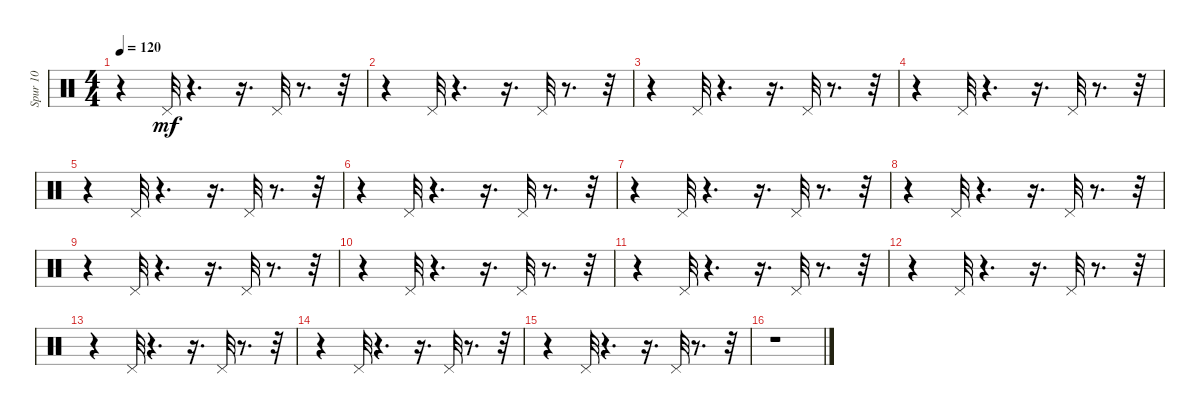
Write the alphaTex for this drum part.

\track ("Spur 10" "Spur 10") {instrument percussion}
\staff {score}
\articulation defaults
\ts (4 4)
\tempo 120
\clef neutral
\ks c
r.4{dy mf} "Pedal Hi-Hat (hit)".32 r.4{d} r.16{d} "Pedal Hi-Hat (hit)".32 r.8{d} r.32 |
r.4 "Pedal Hi-Hat (hit)".32 r.4{d} r.16{d} "Pedal Hi-Hat (hit)".32 r.8{d} r.32 |
r.4 "Pedal Hi-Hat (hit)".32 r.4{d} r.16{d} "Pedal Hi-Hat (hit)".32 r.8{d} r.32 |
r.4 "Pedal Hi-Hat (hit)".32 r.4{d} r.16{d} "Pedal Hi-Hat (hit)".32 r.8{d} r.32 |
r.4 "Pedal Hi-Hat (hit)".32 r.4{d} r.16{d} "Pedal Hi-Hat (hit)".32 r.8{d} r.32 |
r.4 "Pedal Hi-Hat (hit)".32 r.4{d} r.16{d} "Pedal Hi-Hat (hit)".32 r.8{d} r.32 |
r.4 "Pedal Hi-Hat (hit)".32 r.4{d} r.16{d} "Pedal Hi-Hat (hit)".32 r.8{d} r.32 |
r.4 "Pedal Hi-Hat (hit)".32 r.4{d} r.16{d} "Pedal Hi-Hat (hit)".32 r.8{d} r.32 |
r.4 "Pedal Hi-Hat (hit)".32 r.4{d} r.16{d} "Pedal Hi-Hat (hit)".32 r.8{d} r.32 |
r.4 "Pedal Hi-Hat (hit)".32 r.4{d} r.16{d} "Pedal Hi-Hat (hit)".32 r.8{d} r.32 |
r.4 "Pedal Hi-Hat (hit)".32 r.4{d} r.16{d} "Pedal Hi-Hat (hit)".32 r.8{d} r.32 |
r.4 "Pedal Hi-Hat (hit)".32 r.4{d} r.16{d} "Pedal Hi-Hat (hit)".32 r.8{d} r.32 |
r.4 "Pedal Hi-Hat (hit)".32 r.4{d} r.16{d} "Pedal Hi-Hat (hit)".32 r.8{d} r.32 |
r.4 "Pedal Hi-Hat (hit)".32 r.4{d} r.16{d} "Pedal Hi-Hat (hit)".32 r.8{d} r.32 |
r.4 "Pedal Hi-Hat (hit)".32 r.4{d} r.16{d} "Pedal Hi-Hat (hit)".32 r.8{d} r.32 |
r.1
